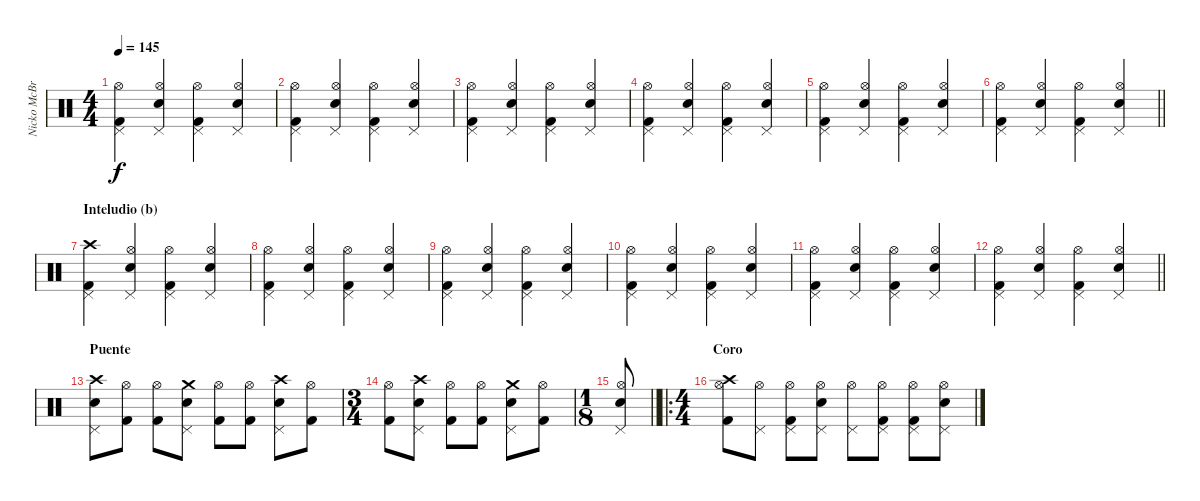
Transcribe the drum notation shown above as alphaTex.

\track ("Nicko McBrain" "Nicko McBr") {instrument percussion}
\staff {score}
\articulation defaults
\ts (4 4)
\tempo 145
\clef neutral
\ks c
("Kick (hit) 2" "Pedal Hi-Hat (hit)" "Hi-Hat (open)").4{dy f} ("Snare (hit) 2" "Pedal Hi-Hat (hit)" "Hi-Hat (open)").4 ("Kick (hit) 2" "Pedal Hi-Hat (hit)" "Hi-Hat (open)").4 ("Snare (hit) 2" "Pedal Hi-Hat (hit)" "Hi-Hat (open)").4 |
("Kick (hit) 2" "Pedal Hi-Hat (hit)" "Hi-Hat (open)").4 ("Snare (hit) 2" "Pedal Hi-Hat (hit)" "Hi-Hat (open)").4 ("Kick (hit) 2" "Pedal Hi-Hat (hit)" "Hi-Hat (open)").4 ("Snare (hit) 2" "Pedal Hi-Hat (hit)" "Hi-Hat (open)").4 |
("Kick (hit) 2" "Pedal Hi-Hat (hit)" "Hi-Hat (open)").4 ("Snare (hit) 2" "Pedal Hi-Hat (hit)" "Hi-Hat (open)").4 ("Kick (hit) 2" "Pedal Hi-Hat (hit)" "Hi-Hat (open)").4 ("Snare (hit) 2" "Pedal Hi-Hat (hit)" "Hi-Hat (open)").4 |
("Kick (hit) 2" "Pedal Hi-Hat (hit)" "Hi-Hat (open)").4 ("Snare (hit) 2" "Pedal Hi-Hat (hit)" "Hi-Hat (open)").4 ("Kick (hit) 2" "Pedal Hi-Hat (hit)" "Hi-Hat (open)").4 ("Snare (hit) 2" "Pedal Hi-Hat (hit)" "Hi-Hat (open)").4 |
("Kick (hit) 2" "Pedal Hi-Hat (hit)" "Hi-Hat (open)").4 ("Snare (hit) 2" "Pedal Hi-Hat (hit)" "Hi-Hat (open)").4 ("Kick (hit) 2" "Pedal Hi-Hat (hit)" "Hi-Hat (open)").4 ("Snare (hit) 2" "Pedal Hi-Hat (hit)" "Hi-Hat (open)").4 |
\barLineRight lightlight
("Kick (hit) 2" "Pedal Hi-Hat (hit)" "Hi-Hat (open)").4 ("Snare (hit) 2" "Pedal Hi-Hat (hit)" "Hi-Hat (open)").4 ("Kick (hit) 2" "Pedal Hi-Hat (hit)" "Hi-Hat (open)").4 ("Snare (hit) 2" "Pedal Hi-Hat (hit)" "Hi-Hat (open)").4 |
\section ("" "Inteludio (b)")
("Kick (hit) 2" "Pedal Hi-Hat (hit)" "Crash high (hit)").4 ("Snare (hit) 2" "Pedal Hi-Hat (hit)" "Hi-Hat (open)").4 ("Kick (hit) 2" "Pedal Hi-Hat (hit)" "Hi-Hat (open)").4 ("Snare (hit) 2" "Pedal Hi-Hat (hit)" "Hi-Hat (open)").4 |
("Kick (hit) 2" "Pedal Hi-Hat (hit)" "Hi-Hat (open)").4 ("Snare (hit) 2" "Pedal Hi-Hat (hit)" "Hi-Hat (open)").4 ("Kick (hit) 2" "Pedal Hi-Hat (hit)" "Hi-Hat (open)").4 ("Snare (hit) 2" "Pedal Hi-Hat (hit)" "Hi-Hat (open)").4 |
("Kick (hit) 2" "Pedal Hi-Hat (hit)" "Hi-Hat (open)").4 ("Snare (hit) 2" "Pedal Hi-Hat (hit)" "Hi-Hat (open)").4 ("Kick (hit) 2" "Pedal Hi-Hat (hit)" "Hi-Hat (open)").4 ("Snare (hit) 2" "Pedal Hi-Hat (hit)" "Hi-Hat (open)").4 |
("Kick (hit) 2" "Pedal Hi-Hat (hit)" "Hi-Hat (open)").4 ("Snare (hit) 2" "Pedal Hi-Hat (hit)" "Hi-Hat (open)").4 ("Kick (hit) 2" "Pedal Hi-Hat (hit)" "Hi-Hat (open)").4 ("Snare (hit) 2" "Pedal Hi-Hat (hit)" "Hi-Hat (open)").4 |
("Kick (hit) 2" "Pedal Hi-Hat (hit)" "Hi-Hat (open)").4 ("Snare (hit) 2" "Pedal Hi-Hat (hit)" "Hi-Hat (open)").4 ("Kick (hit) 2" "Pedal Hi-Hat (hit)" "Hi-Hat (open)").4 ("Snare (hit) 2" "Pedal Hi-Hat (hit)" "Hi-Hat (open)").4 |
\barLineRight lightlight
("Kick (hit) 2" "Pedal Hi-Hat (hit)" "Hi-Hat (open)").4 ("Snare (hit) 2" "Pedal Hi-Hat (hit)" "Hi-Hat (open)").4 ("Kick (hit) 2" "Pedal Hi-Hat (hit)" "Hi-Hat (open)").4 ("Snare (hit) 2" "Pedal Hi-Hat (hit)" "Hi-Hat (open)").4 |
\section ("" "Puente")
("Snare (hit) 2" "Pedal Hi-Hat (hit)" "Crash high (hit)").8 ("Kick (hit) 2" "Hi-Hat (open)").8 ("Kick (hit) 2" "Hi-Hat (open)").8 ("Snare (hit) 2" "Pedal Hi-Hat (hit)" "Crash medium (hit)").8 ("Kick (hit) 2" "Hi-Hat (open)").8 ("Kick (hit) 2" "Hi-Hat (open)").8 ("Snare (hit) 2" "Pedal Hi-Hat (hit)" "Crash high (hit)").8 ("Kick (hit) 2" "Hi-Hat (open)").8 |
\ts (3 4)
("Kick (hit) 2" "Hi-Hat (open)").8 ("Snare (hit) 2" "Pedal Hi-Hat (hit)" "Crash high (hit)").8 ("Kick (hit) 2" "Hi-Hat (open)").8 ("Kick (hit) 2" "Hi-Hat (open)").8 ("Snare (hit) 2" "Pedal Hi-Hat (hit)" "Crash medium (hit)").8 ("Kick (hit) 2" "Hi-Hat (open)").8 |
\ts (1 8)
\barLineRight lightlight
("Snare (hit) 2" "Pedal Hi-Hat (hit)" "Hi-Hat (open)").8 |
\ro
\ts (4 4)
\section ("" "Coro")
("Kick (hit) 2" "Hi-Hat (open)" "Crash high (hit)").8 ("Pedal Hi-Hat (hit)" "Hi-Hat (open)").8 ("Kick (hit) 2" "Pedal Hi-Hat (hit)" "Hi-Hat (open)").8 ("Snare (hit) 2" "Pedal Hi-Hat (hit)" "Hi-Hat (open)").8 ("Pedal Hi-Hat (hit)" "Hi-Hat (open)").8 ("Kick (hit) 2" "Pedal Hi-Hat (hit)" "Hi-Hat (open)").8 ("Kick (hit) 2" "Pedal Hi-Hat (hit)" "Hi-Hat (open)").8 ("Snare (hit) 2" "Pedal Hi-Hat (hit)" "Hi-Hat (open)").8
